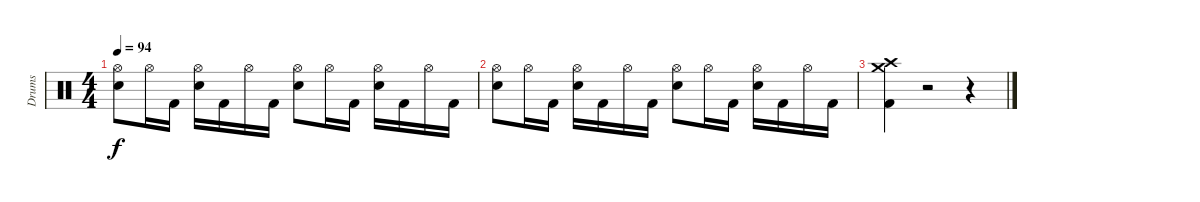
\track ("Drums" "Drums") {instrument percussion}
\staff {score}
\articulation defaults
\ts (4 4)
\tempo 94
\clef neutral
\ks c
("Electric Snare (hit)" "Hi-Hat (open)").8{dy f} "Hi-Hat (open)".16 "Kick (hit) 2".16 ("Hi-Hat (open)" "Electric Snare (hit)").16 "Kick (hit) 2".16 "Hi-Hat (open)".16 "Kick (hit) 2".16 ("Electric Snare (hit)" "Hi-Hat (open)").8 "Hi-Hat (open)".16 "Kick (hit) 2".16 ("Hi-Hat (open)" "Electric Snare (hit)").16 "Kick (hit) 2".16 "Hi-Hat (open)".16 "Kick (hit) 2".16 |
("Electric Snare (hit)" "Hi-Hat (open)").8 "Hi-Hat (open)".16 "Kick (hit) 2".16 ("Hi-Hat (open)" "Electric Snare (hit)").16 "Kick (hit) 2".16 "Hi-Hat (open)".16 "Kick (hit) 2".16 ("Electric Snare (hit)" "Hi-Hat (open)").8 "Hi-Hat (open)".16 "Kick (hit) 2".16 ("Hi-Hat (open)" "Electric Snare (hit)").16 "Kick (hit) 2".16 "Hi-Hat (open)".16 "Kick (hit) 2".16 |
("Crash high (hit)" "Crash medium (hit)" "Kick (hit) 2").4 r.2 r.4
